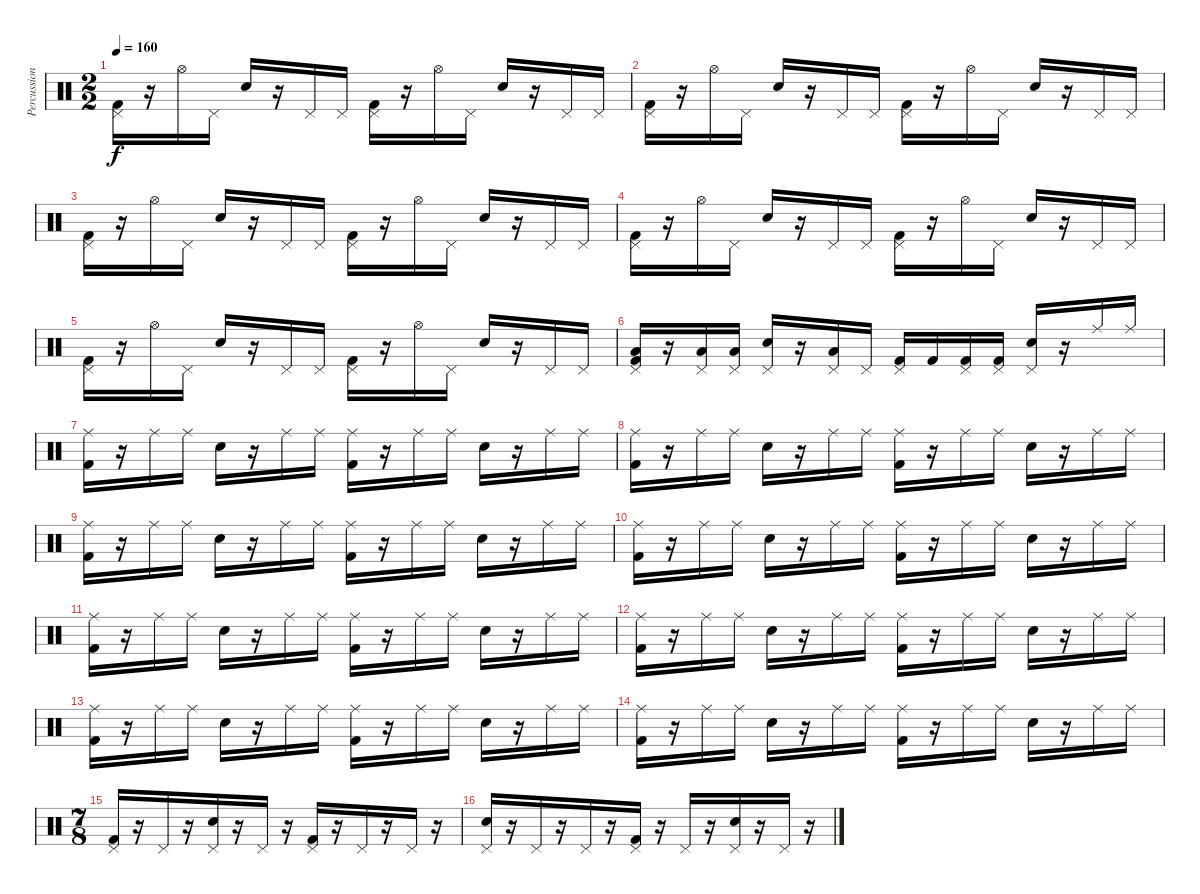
\track ("Percussion" "Percussion") {instrument percussion}
\staff {score}
\articulation defaults
\ts (2 2)
\tempo 160
\clef neutral
\ks c
("Kick (hit) 2" "Pedal Hi-Hat (hit)").16{dy f} r.16 "Hi-Hat (open)".16 "Pedal Hi-Hat (hit)".16 "Snare (hit) 2".16 r.16 "Pedal Hi-Hat (hit)".16 "Pedal Hi-Hat (hit)".16 ("Kick (hit) 2" "Pedal Hi-Hat (hit)").16 r.16 "Hi-Hat (open)".16 "Pedal Hi-Hat (hit)".16 "Snare (hit) 2".16 r.16 "Pedal Hi-Hat (hit)".16 "Pedal Hi-Hat (hit)".16 |
("Kick (hit) 2" "Pedal Hi-Hat (hit)").16 r.16 "Hi-Hat (open)".16 "Pedal Hi-Hat (hit)".16 "Snare (hit) 2".16 r.16 "Pedal Hi-Hat (hit)".16 "Pedal Hi-Hat (hit)".16 ("Kick (hit) 2" "Pedal Hi-Hat (hit)").16 r.16 "Hi-Hat (open)".16 "Pedal Hi-Hat (hit)".16 "Snare (hit) 2".16 r.16 "Pedal Hi-Hat (hit)".16 "Pedal Hi-Hat (hit)".16 |
("Kick (hit) 2" "Pedal Hi-Hat (hit)").16 r.16 "Hi-Hat (open)".16 "Pedal Hi-Hat (hit)".16 "Snare (hit) 2".16 r.16 "Pedal Hi-Hat (hit)".16 "Pedal Hi-Hat (hit)".16 ("Kick (hit) 2" "Pedal Hi-Hat (hit)").16 r.16 "Hi-Hat (open)".16 "Pedal Hi-Hat (hit)".16 "Snare (hit) 2".16 r.16 "Pedal Hi-Hat (hit)".16 "Pedal Hi-Hat (hit)".16 |
("Kick (hit) 2" "Pedal Hi-Hat (hit)").16 r.16 "Hi-Hat (open)".16 "Pedal Hi-Hat (hit)".16 "Snare (hit) 2".16 r.16 "Pedal Hi-Hat (hit)".16 "Pedal Hi-Hat (hit)".16 ("Kick (hit) 2" "Pedal Hi-Hat (hit)").16 r.16 "Hi-Hat (open)".16 "Pedal Hi-Hat (hit)".16 "Snare (hit) 2".16 r.16 "Pedal Hi-Hat (hit)".16 "Pedal Hi-Hat (hit)".16 |
("Kick (hit) 2" "Pedal Hi-Hat (hit)").16 r.16 "Hi-Hat (open)".16 "Pedal Hi-Hat (hit)".16 "Snare (hit) 2".16 r.16 "Pedal Hi-Hat (hit)".16 "Pedal Hi-Hat (hit)".16 ("Kick (hit) 2" "Pedal Hi-Hat (hit)").16 r.16 "Hi-Hat (open)".16 "Pedal Hi-Hat (hit)".16 "Snare (hit) 2".16 r.16 "Pedal Hi-Hat (hit)".16 "Pedal Hi-Hat (hit)".16 |
("Kick (hit) 2" "Pedal Hi-Hat (hit)" "Low Floor Tom (hit)").16 r.16 ("Pedal Hi-Hat (hit)" "Low Floor Tom (hit)").16 ("Pedal Hi-Hat (hit)" "Low Floor Tom (hit)").16 ("Pedal Hi-Hat (hit)" "Snare (hit) 2").16 r.16 ("Pedal Hi-Hat (hit)" "Low Floor Tom (hit)").16 "Pedal Hi-Hat (hit)".16 ("Pedal Hi-Hat (hit)" "Kick (hit) 2").16 "Kick (hit) 2".16 ("Pedal Hi-Hat (hit)" "Kick (hit) 2").16 ("Pedal Hi-Hat (hit)" "Kick (hit) 2").16 ("Pedal Hi-Hat (hit)" "Snare (hit) 2").16 r.16 "Ride (middle)".16 "Ride (middle)".16 |
("Kick (hit) 2" "Ride (middle)").16 r.16 "Ride (middle)".16 "Ride (middle)".16 "Snare (hit) 2".16 r.16 "Ride (middle)".16 "Ride (middle)".16 ("Kick (hit) 2" "Ride (middle)").16 r.16 "Ride (middle)".16 "Ride (middle)".16 "Snare (hit) 2".16 r.16 "Ride (middle)".16 "Ride (middle)".16 |
("Kick (hit) 2" "Ride (middle)").16 r.16 "Ride (middle)".16 "Ride (middle)".16 "Snare (hit) 2".16 r.16 "Ride (middle)".16 "Ride (middle)".16 ("Kick (hit) 2" "Ride (middle)").16 r.16 "Ride (middle)".16 "Ride (middle)".16 "Snare (hit) 2".16 r.16 "Ride (middle)".16 "Ride (middle)".16 |
("Kick (hit) 2" "Ride (middle)").16 r.16 "Ride (middle)".16 "Ride (middle)".16 "Snare (hit) 2".16 r.16 "Ride (middle)".16 "Ride (middle)".16 ("Kick (hit) 2" "Ride (middle)").16 r.16 "Ride (middle)".16 "Ride (middle)".16 "Snare (hit) 2".16 r.16 "Ride (middle)".16 "Ride (middle)".16 |
("Kick (hit) 2" "Ride (middle)").16 r.16 "Ride (middle)".16 "Ride (middle)".16 "Snare (hit) 2".16 r.16 "Ride (middle)".16 "Ride (middle)".16 ("Kick (hit) 2" "Ride (middle)").16 r.16 "Ride (middle)".16 "Ride (middle)".16 "Snare (hit) 2".16 r.16 "Ride (middle)".16 "Ride (middle)".16 |
("Kick (hit) 2" "Ride (middle)").16 r.16 "Ride (middle)".16 "Ride (middle)".16 "Snare (hit) 2".16 r.16 "Ride (middle)".16 "Ride (middle)".16 ("Kick (hit) 2" "Ride (middle)").16 r.16 "Ride (middle)".16 "Ride (middle)".16 "Snare (hit) 2".16 r.16 "Ride (middle)".16 "Ride (middle)".16 |
("Kick (hit) 2" "Ride (middle)").16 r.16 "Ride (middle)".16 "Ride (middle)".16 "Snare (hit) 2".16 r.16 "Ride (middle)".16 "Ride (middle)".16 ("Kick (hit) 2" "Ride (middle)").16 r.16 "Ride (middle)".16 "Ride (middle)".16 "Snare (hit) 2".16 r.16 "Ride (middle)".16 "Ride (middle)".16 |
("Kick (hit) 2" "Ride (middle)").16 r.16 "Ride (middle)".16 "Ride (middle)".16 "Snare (hit) 2".16 r.16 "Ride (middle)".16 "Ride (middle)".16 ("Kick (hit) 2" "Ride (middle)").16 r.16 "Ride (middle)".16 "Ride (middle)".16 "Snare (hit) 2".16 r.16 "Ride (middle)".16 "Ride (middle)".16 |
("Kick (hit) 2" "Ride (middle)").16 r.16 "Ride (middle)".16 "Ride (middle)".16 "Snare (hit) 2".16 r.16 "Ride (middle)".16 "Ride (middle)".16 ("Kick (hit) 2" "Ride (middle)").16 r.16 "Ride (middle)".16 "Ride (middle)".16 "Snare (hit) 2".16 r.16 "Ride (middle)".16 "Ride (middle)".16 |
\ts (7 8)
("Pedal Hi-Hat (hit)" "Kick (hit) 2").16 r.16 "Pedal Hi-Hat (hit)".16 r.16 ("Pedal Hi-Hat (hit)" "Snare (hit) 2").16 r.16 "Pedal Hi-Hat (hit)".16 r.16 ("Pedal Hi-Hat (hit)" "Kick (hit) 2").16 r.16 "Pedal Hi-Hat (hit)".16 r.16 "Pedal Hi-Hat (hit)".16 r.16 |
("Pedal Hi-Hat (hit)" "Snare (hit) 2").16 r.16 "Pedal Hi-Hat (hit)".16 r.16 "Pedal Hi-Hat (hit)".16 r.16 ("Pedal Hi-Hat (hit)" "Kick (hit) 2").16 r.16 "Pedal Hi-Hat (hit)".16 r.16 ("Pedal Hi-Hat (hit)" "Snare (hit) 2").16 r.16 "Pedal Hi-Hat (hit)".16 r.16
